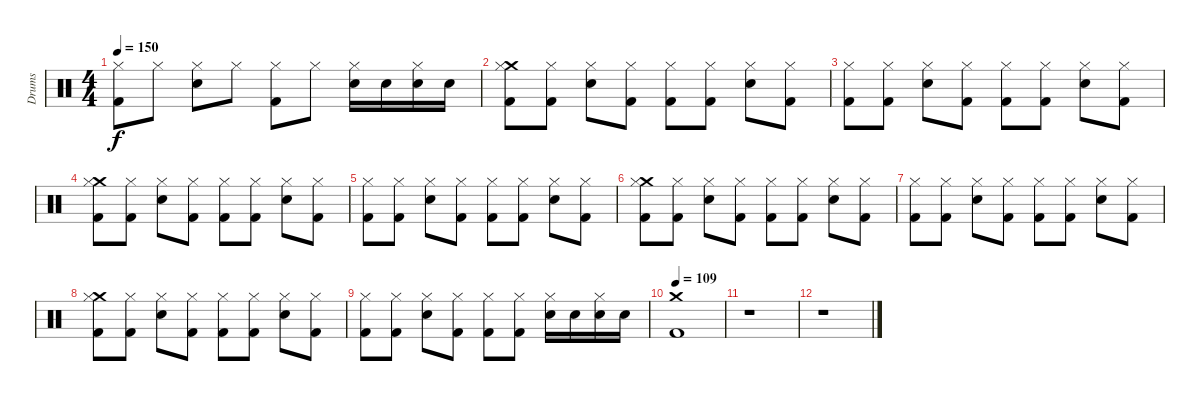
\track ("Drums" "Drums") {instrument percussion}
\staff {score}
\articulation defaults
\ts (4 4)
\tempo 150
\clef neutral
\ks c
("Hi-Hat (closed)" "Kick (hit) 2").8{dy f} "Hi-Hat (closed)".8 ("Hi-Hat (closed)" "Snare (hit) 2").8 "Hi-Hat (closed)".8 ("Hi-Hat (closed)" "Kick (hit) 2").8 "Hi-Hat (closed)".8 ("Snare (hit) 2" "Hi-Hat (closed)").16 "Snare (hit) 2".16 ("Snare (hit) 2" "Hi-Hat (closed)").16 "Snare (hit) 2".16 |
("Crash medium (hit)" "Hi-Hat (closed)" "Kick (hit) 2").8 ("Hi-Hat (closed)" "Kick (hit) 2").8 ("Hi-Hat (closed)" "Snare (hit) 2").8 ("Hi-Hat (closed)" "Kick (hit) 2").8 ("Hi-Hat (closed)" "Kick (hit) 2").8 ("Hi-Hat (closed)" "Kick (hit) 2").8 ("Hi-Hat (closed)" "Snare (hit) 2").8 ("Hi-Hat (closed)" "Kick (hit) 2").8 |
("Hi-Hat (closed)" "Kick (hit) 2").8 ("Hi-Hat (closed)" "Kick (hit) 2").8 ("Hi-Hat (closed)" "Snare (hit) 2").8 ("Hi-Hat (closed)" "Kick (hit) 2").8 ("Hi-Hat (closed)" "Kick (hit) 2").8 ("Hi-Hat (closed)" "Kick (hit) 2").8 ("Hi-Hat (closed)" "Snare (hit) 2").8 ("Hi-Hat (closed)" "Kick (hit) 2").8 |
("Crash medium (hit)" "Hi-Hat (closed)" "Kick (hit) 2").8 ("Hi-Hat (closed)" "Kick (hit) 2").8 ("Hi-Hat (closed)" "Snare (hit) 2").8 ("Hi-Hat (closed)" "Kick (hit) 2").8 ("Hi-Hat (closed)" "Kick (hit) 2").8 ("Hi-Hat (closed)" "Kick (hit) 2").8 ("Hi-Hat (closed)" "Snare (hit) 2").8 ("Hi-Hat (closed)" "Kick (hit) 2").8 |
("Hi-Hat (closed)" "Kick (hit) 2").8 ("Hi-Hat (closed)" "Kick (hit) 2").8 ("Hi-Hat (closed)" "Snare (hit) 2").8 ("Hi-Hat (closed)" "Kick (hit) 2").8 ("Hi-Hat (closed)" "Kick (hit) 2").8 ("Hi-Hat (closed)" "Kick (hit) 2").8 ("Hi-Hat (closed)" "Snare (hit) 2").8 ("Hi-Hat (closed)" "Kick (hit) 2").8 |
("Crash medium (hit)" "Hi-Hat (closed)" "Kick (hit) 2").8 ("Hi-Hat (closed)" "Kick (hit) 2").8 ("Hi-Hat (closed)" "Snare (hit) 2").8 ("Hi-Hat (closed)" "Kick (hit) 2").8 ("Hi-Hat (closed)" "Kick (hit) 2").8 ("Hi-Hat (closed)" "Kick (hit) 2").8 ("Hi-Hat (closed)" "Snare (hit) 2").8 ("Hi-Hat (closed)" "Kick (hit) 2").8 |
("Hi-Hat (closed)" "Kick (hit) 2").8 ("Hi-Hat (closed)" "Kick (hit) 2").8 ("Hi-Hat (closed)" "Snare (hit) 2").8 ("Hi-Hat (closed)" "Kick (hit) 2").8 ("Hi-Hat (closed)" "Kick (hit) 2").8 ("Hi-Hat (closed)" "Kick (hit) 2").8 ("Hi-Hat (closed)" "Snare (hit) 2").8 ("Hi-Hat (closed)" "Kick (hit) 2").8 |
("Crash medium (hit)" "Hi-Hat (closed)" "Kick (hit) 2").8 ("Hi-Hat (closed)" "Kick (hit) 2").8 ("Hi-Hat (closed)" "Snare (hit) 2").8 ("Hi-Hat (closed)" "Kick (hit) 2").8 ("Hi-Hat (closed)" "Kick (hit) 2").8 ("Hi-Hat (closed)" "Kick (hit) 2").8 ("Hi-Hat (closed)" "Snare (hit) 2").8 ("Hi-Hat (closed)" "Kick (hit) 2").8 |
("Hi-Hat (closed)" "Kick (hit) 2").8 ("Hi-Hat (closed)" "Kick (hit) 2").8 ("Hi-Hat (closed)" "Snare (hit) 2").8 ("Hi-Hat (closed)" "Kick (hit) 2").8 ("Hi-Hat (closed)" "Kick (hit) 2").8 ("Hi-Hat (closed)" "Kick (hit) 2").8 ("Snare (hit) 2" "Hi-Hat (closed)").16 "Snare (hit) 2".16 ("Snare (hit) 2" "Hi-Hat (closed)").16 "Snare (hit) 2".16 |
\tempo 109
("Crash medium (hit)" "Kick (hit) 2").1 |
r.1 |
r.1
